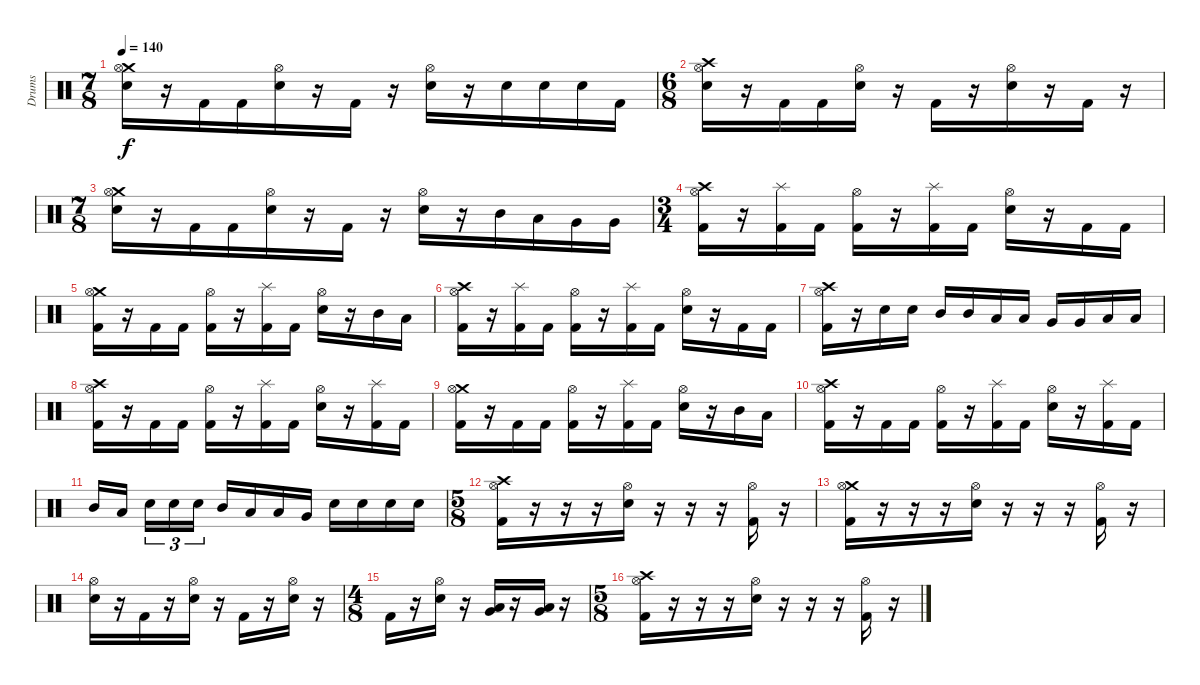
\track ("Drums" "Drums") {instrument percussion}
\staff {score}
\articulation defaults
\ts (7 8)
\tempo 140
\clef neutral
\ks c
("Crash medium (hit)" "Hi-Hat (open)" "Electric Snare (hit)").16{dy f} r.16 "Kick (hit) 2".16 "Kick (hit) 2".16 ("Hi-Hat (open)" "Electric Snare (hit)").16 r.16 "Kick (hit) 2".16 r.16 ("Hi-Hat (open)" "Electric Snare (hit)").16 r.16 "Electric Snare (hit)".16 "Electric Snare (hit)".16 "Electric Snare (hit)".16 "Kick (hit) 2".16 |
\ts (6 8)
("Crash high (hit)" "Hi-Hat (open)" "Electric Snare (hit)").16 r.16 "Kick (hit) 2".16 "Kick (hit) 2".16 ("Hi-Hat (open)" "Electric Snare (hit)").16 r.16 "Kick (hit) 2".16 r.16 ("Hi-Hat (open)" "Electric Snare (hit)").16 r.16 "Kick (hit) 2".16 r.16 |
\ts (7 8)
("Crash medium (hit)" "Hi-Hat (open)" "Electric Snare (hit)").16 r.16 "Kick (hit) 2".16 "Kick (hit) 2".16 ("Hi-Hat (open)" "Electric Snare (hit)").16 r.16 "Kick (hit) 2".16 r.16 ("Hi-Hat (open)" "Electric Snare (hit)").16 r.16 "Mid Tom (hit)".16 "Low Tom (hit)".16 "Very Low Tom (hit)".16 "Very Low Tom (hit)".16 |
\ts (3 4)
("Crash high (hit)" "Hi-Hat (open)" "Kick (hit) 2").16 r.16 ("Splash (hit)" "Kick (hit) 2").16 "Kick (hit) 2".16 ("Hi-Hat (open)" "Kick (hit) 2").16 r.16 ("Splash (hit)" "Kick (hit) 2").16 "Kick (hit) 2".16 ("Hi-Hat (open)" "Electric Snare (hit)").16 r.16 "Kick (hit) 2".16 "Kick (hit) 2".16 |
("Crash medium (hit)" "Hi-Hat (open)" "Kick (hit) 2").16 r.16 "Kick (hit) 2".16 "Kick (hit) 2".16 ("Hi-Hat (open)" "Kick (hit) 2").16 r.16 ("Splash (hit)" "Kick (hit) 2").16 "Kick (hit) 2".16 ("Hi-Hat (open)" "Electric Snare (hit)").16 r.16 "Mid Tom (hit)".16 "Low Tom (hit)".16 |
("Crash high (hit)" "Hi-Hat (open)" "Kick (hit) 2").16 r.16 ("Splash (hit)" "Kick (hit) 2").16 "Kick (hit) 2".16 ("Hi-Hat (open)" "Kick (hit) 2").16 r.16 ("Splash (hit)" "Kick (hit) 2").16 "Kick (hit) 2".16 ("Hi-Hat (open)" "Electric Snare (hit)").16 r.16 "Kick (hit) 2".16 "Kick (hit) 2".16 |
("Crash high (hit)" "Hi-Hat (open)" "Kick (hit) 2").16 r.16 "Electric Snare (hit)".16 "Electric Snare (hit)".16 "Mid Tom (hit)".16 "Mid Tom (hit)".16 "Low Tom (hit)".16 "Low Tom (hit)".16 "Very Low Tom (hit)".16 "Very Low Tom (hit)".16 "Low Tom (hit)".16 "Low Tom (hit)".16 |
("Crash high (hit)" "Hi-Hat (open)" "Kick (hit) 2").16 r.16 "Kick (hit) 2".16 "Kick (hit) 2".16 ("Hi-Hat (open)" "Kick (hit) 2").16 r.16 ("Splash (hit)" "Kick (hit) 2").16 "Kick (hit) 2".16 ("Hi-Hat (open)" "Electric Snare (hit)").16 r.16 ("Splash (hit)" "Kick (hit) 2").16 "Kick (hit) 2".16 |
("Crash medium (hit)" "Hi-Hat (open)" "Kick (hit) 2").16 r.16 "Kick (hit) 2".16 "Kick (hit) 2".16 ("Hi-Hat (open)" "Kick (hit) 2").16 r.16 ("Splash (hit)" "Kick (hit) 2").16 "Kick (hit) 2".16 ("Hi-Hat (open)" "Electric Snare (hit)").16 r.16 "Mid Tom (hit)".16 "Low Tom (hit)".16 |
("Crash high (hit)" "Hi-Hat (open)" "Kick (hit) 2").16 r.16 "Kick (hit) 2".16 "Kick (hit) 2".16 ("Hi-Hat (open)" "Kick (hit) 2").16 r.16 ("Splash (hit)" "Kick (hit) 2").16 "Kick (hit) 2".16 ("Hi-Hat (open)" "Electric Snare (hit)").16 r.16 ("Splash (hit)" "Kick (hit) 2").16 "Kick (hit) 2".16 |
"Mid Tom (hit)".16 "Low Tom (hit)".16 "Electric Snare (hit)".16{tu (3 2)} "Electric Snare (hit)".16{tu (3 2)} "Electric Snare (hit)".16{tu (3 2)} "Mid Tom (hit)".16 "Low Tom (hit)".16 "Low Tom (hit)".16 "Very Low Tom (hit)".16 "Electric Snare (hit)".16 "Electric Snare (hit)".16 "Electric Snare (hit)".16 "Electric Snare (hit)".16 |
\ts (5 8)
("Crash high (hit)" "Hi-Hat (open)" "Kick (hit) 2").16 r.16 r.16 r.16 ("Hi-Hat (open)" "Electric Snare (hit)").16 r.16 r.16 r.16 ("Hi-Hat (open)" "Kick (hit) 2").16 r.16 |
("Crash medium (hit)" "Hi-Hat (open)" "Kick (hit) 2").16 r.16 r.16 r.16 ("Hi-Hat (open)" "Electric Snare (hit)").16 r.16 r.16 r.16 ("Hi-Hat (open)" "Kick (hit) 2").16 r.16 |
("Hi-Hat (open)" "Electric Snare (hit)").16 r.16 "Kick (hit) 2".16 r.16 ("Hi-Hat (open)" "Electric Snare (hit)").16 r.16 "Kick (hit) 2".16 r.16 ("Hi-Hat (open)" "Electric Snare (hit)").16 r.16 |
\ts (4 8)
"Kick (hit) 2".16 r.16 ("Hi-Hat (open)" "Electric Snare (hit)").16 r.16 ("Very Low Tom (hit)" "Low Tom (hit)").16 r.16 ("Very Low Tom (hit)" "Low Tom (hit)").16 r.16 |
\ts (5 8)
("Crash high (hit)" "Hi-Hat (open)" "Kick (hit) 2").16 r.16 r.16 r.16 ("Hi-Hat (open)" "Electric Snare (hit)").16 r.16 r.16 r.16 ("Hi-Hat (open)" "Kick (hit) 2").16 r.16
